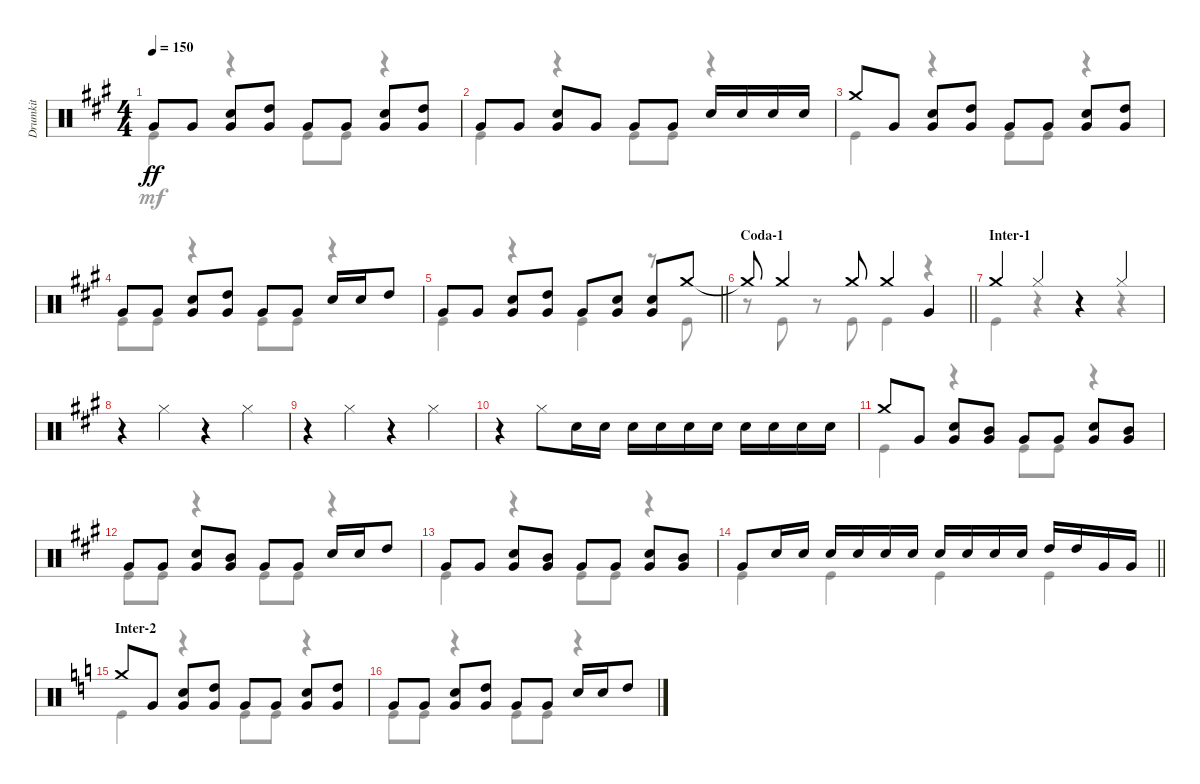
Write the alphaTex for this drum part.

\track ("Drumkit" "Drumkit") {instrument percussion}
\staff {score}
\articulation defaults
\voice
\ts (4 4)
\tempo 150
\clef neutral
\ks a "Very Low Tom (hit)".8{dy ff} "Very Low Tom (hit)".8
("Very Low Tom (hit)" "Snare (hit) 2").8 ("Very Low Tom (hit)" "High Tom (hit)").8 "Very Low Tom (hit)".8 "Very Low Tom (hit)".8 ("Very Low Tom (hit)" "Snare (hit) 2").8 ("Very Low Tom (hit)" "High Tom (hit)").8 |
"Very Low Tom (hit)".8 "Very Low Tom (hit)".8 ("Very Low Tom (hit)" "Snare (hit) 2").8 "Very Low Tom (hit)".8 "Very Low Tom (hit)".8 "Very Low Tom (hit)".8 "Snare (hit) 2".16 "Snare (hit) 2".16 "Snare (hit) 2".16 "Snare (hit) 2".16 |
"Crash medium (hit)".8 "Very Low Tom (hit)".8 ("Very Low Tom (hit)" "Snare (hit) 2").8 ("Very Low Tom (hit)" "High Tom (hit)").8 "Very Low Tom (hit)".8 "Very Low Tom (hit)".8 ("Very Low Tom (hit)" "Snare (hit) 2").8 ("Very Low Tom (hit)" "High Tom (hit)").8 |
"Very Low Tom (hit)".8 "Very Low Tom (hit)".8 ("Very Low Tom (hit)" "Snare (hit) 2").8 ("Very Low Tom (hit)" "High Tom (hit)").8 "Very Low Tom (hit)".8 "Very Low Tom (hit)".8 "Snare (hit) 2".16 "Snare (hit) 2".16 "High Tom (hit)".8 |
\barLineRight lightlight "Very Low Tom (hit)".8 "Very Low Tom (hit)".8
("Very Low Tom (hit)" "Snare (hit) 2").8 ("Very Low Tom (hit)" "High Tom (hit)").8 "Very Low Tom (hit)".8 ("Very Low Tom (hit)" "Snare (hit) 2").8 ("Very Low Tom (hit)" "Snare (hit) 2").8 "Crash medium (hit)".8 |
\section ("" "Coda-1")
\barLineRight lightlight "Crash medium (hit)"{t}.8 "Crash medium (hit)".4 "Crash medium (hit)".8 "Crash medium (hit)".4 "Very Low Tom (hit)".4
|
\section ("" "Inter-1")
"Crash medium (hit)".4 "Hi-Hat (closed)".4 r.4 "Hi-Hat (closed)".4 |
r.4 "Hi-Hat (closed)".4 r.4 "Hi-Hat (closed)".4 |
r.4 "Hi-Hat (closed)".4 r.4 "Hi-Hat (closed)".4 |
r.4 "Hi-Hat (closed)".8 "Snare (hit) 2".16 "Snare (hit) 2".16 "Snare (hit) 2".16 "Snare (hit) 2".16 "Snare (hit) 2".16 "Snare (hit) 2".16 "Snare (hit) 2".16 "Snare (hit) 2".16 "Snare (hit) 2".16 "Snare (hit) 2".16 |
"Crash medium (hit)".8 "Very Low Tom (hit)".8 ("Very Low Tom (hit)" "Snare (hit) 2").8 ("Very Low Tom (hit)" "Mid Tom (hit)").8 "Very Low Tom (hit)".8 "Very Low Tom (hit)".8 ("Very Low Tom (hit)" "Snare (hit) 2").8 ("Very Low Tom (hit)" "Mid Tom (hit)").8 |
"Very Low Tom (hit)".8 "Very Low Tom (hit)".8 ("Very Low Tom (hit)" "Snare (hit) 2").8 ("Very Low Tom (hit)" "Mid Tom (hit)").8 "Very Low Tom (hit)".8 "Very Low Tom (hit)".8 "Snare (hit) 2".16 "Snare (hit) 2".16 "High Tom (hit)".8 |
"Very Low Tom (hit)".8 "Very Low Tom (hit)".8 ("Very Low Tom (hit)" "Snare (hit) 2").8 ("Very Low Tom (hit)" "Mid Tom (hit)").8 "Very Low Tom (hit)".8 "Very Low Tom (hit)".8 ("Very Low Tom (hit)" "Snare (hit) 2").8 ("Very Low Tom (hit)" "Mid Tom (hit)").8 |
\barLineRight lightlight "Very Low Tom (hit)".8 "Snare (hit) 2".16 "Snare (hit) 2".16 "Snare (hit) 2".16 "Snare (hit) 2".16 "Snare (hit) 2".16 "Snare (hit) 2".16 "Snare (hit) 2".16 "Snare (hit) 2".16 "Snare (hit) 2".16 "Snare (hit) 2".16 "High Tom (hit)".16 "High Tom (hit)".16 "Very Low Tom (hit)".16 "Very Low Tom (hit)".16
|
\section ("" "Inter-2")
\ks c "Crash medium (hit)".8 "Very Low Tom (hit)".8
("Very Low Tom (hit)" "Snare (hit) 2").8 ("Very Low Tom (hit)" "High Tom (hit)").8 "Very Low Tom (hit)".8 "Very Low Tom (hit)".8 ("Very Low Tom (hit)" "Snare (hit) 2").8 ("Very Low Tom (hit)" "High Tom (hit)").8 |
"Very Low Tom (hit)".8 "Very Low Tom (hit)".8 ("Very Low Tom (hit)" "Snare (hit) 2").8 ("Very Low Tom (hit)" "High Tom (hit)").8 "Very Low Tom (hit)".8 "Very Low Tom (hit)".8 "Snare (hit) 2".16 "Snare (hit) 2".16 "High Tom (hit)".8
\voice
\clef neutral
\ottava regular
\simile none
\ks a "Kick (hit)".4{dy mf}
r.4 "Kick (hit)".8 "Kick (hit)".8 r.4 |
"Kick (hit)".4 r.4 "Kick (hit)".8 "Kick (hit)".8 r.4 |
"Kick (hit)".4 r.4 "Kick (hit)".8 "Kick (hit)".8 r.4 |
"Kick (hit)".8 "Kick (hit)".8 r.4 "Kick (hit)".8 "Kick (hit)".8 r.4 |
\barLineRight lightlight "Kick (hit)".4
r.4 "Kick (hit)".4 r.8 "Kick (hit)".8 |
\barLineRight lightlight
r.8 "Kick (hit)".8 r.8 "Kick (hit)".8 "Kick (hit)".4 r.4 |
"Kick (hit)".4 r.4 r.4 r.4 |
|
|
|
"Kick (hit)".4 r.4 "Kick (hit)".8 "Kick (hit)".8 r.4 |
"Kick (hit)".8 "Kick (hit)".8 r.4 "Kick (hit)".8 "Kick (hit)".8 r.4 |
"Kick (hit)".4 r.4 "Kick (hit)".8 "Kick (hit)".8 r.4 |
\barLineRight lightlight "Kick (hit)".4 "Kick (hit)".4 "Kick (hit)".4 "Kick (hit)".4
|
\ks c "Kick (hit)".4
r.4 "Kick (hit)".8 "Kick (hit)".8 r.4 |
"Kick (hit)".8 "Kick (hit)".8 r.4 "Kick (hit)".8 "Kick (hit)".8 r.4
